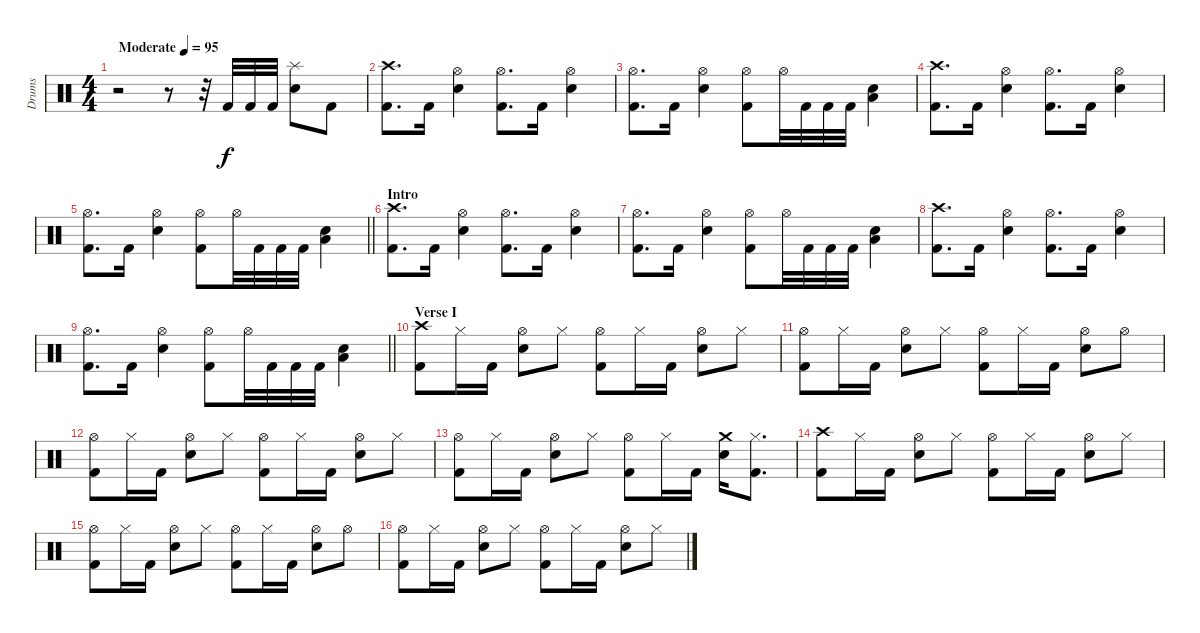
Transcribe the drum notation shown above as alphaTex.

\track ("Drums" "Drums") {instrument percussion}
\staff {score}
\articulation defaults
\ts (4 4)
\tempo (95 "Moderate")
\clef neutral
\ks c
r.2{dy f} r.8 r.32 "Kick (hit) 2".32 "Kick (hit) 2".32 "Kick (hit) 2".32 ("Splash (hit)" "Snare (hit) 2").8 "Kick (hit) 2".8 |
("Crash high (hit)" "Kick (hit) 2").8{d} "Kick (hit) 2".16 ("Hi-Hat (open)" "Snare (hit) 2").4 ("Hi-Hat (open)" "Kick (hit) 2").8{d} "Kick (hit) 2".16 ("Hi-Hat (open)" "Snare (hit) 2").4 |
("Hi-Hat (open)" "Kick (hit) 2").8{d} "Kick (hit) 2".16 ("Hi-Hat (open)" "Snare (hit) 2").4 ("Hi-Hat (open)" "Kick (hit) 2").8 "Hi-Hat (open)".32 "Kick (hit) 2".32 "Kick (hit) 2".32 "Kick (hit) 2".32 ("Snare (hit) 2" "Low Floor Tom (hit)").4 |
("Crash high (hit)" "Kick (hit) 2").8{d} "Kick (hit) 2".16 ("Hi-Hat (open)" "Snare (hit) 2").4 ("Hi-Hat (open)" "Kick (hit) 2").8{d} "Kick (hit) 2".16 ("Hi-Hat (open)" "Snare (hit) 2").4 |
\barLineRight lightlight
("Hi-Hat (open)" "Kick (hit) 2").8{d} "Kick (hit) 2".16 ("Hi-Hat (open)" "Snare (hit) 2").4 ("Hi-Hat (open)" "Kick (hit) 2").8 "Hi-Hat (open)".32 "Kick (hit) 2".32 "Kick (hit) 2".32 "Kick (hit) 2".32 ("Snare (hit) 2" "Low Floor Tom (hit)").4 |
\section ("" "Intro")
("Crash high (hit)" "Kick (hit) 2").8{d} "Kick (hit) 2".16 ("Hi-Hat (open)" "Snare (hit) 2").4 ("Hi-Hat (open)" "Kick (hit) 2").8{d} "Kick (hit) 2".16 ("Hi-Hat (open)" "Snare (hit) 2").4 |
("Hi-Hat (open)" "Kick (hit) 2").8{d} "Kick (hit) 2".16 ("Hi-Hat (open)" "Snare (hit) 2").4 ("Hi-Hat (open)" "Kick (hit) 2").8 "Hi-Hat (open)".32 "Kick (hit) 2".32 "Kick (hit) 2".32 "Kick (hit) 2".32 ("Snare (hit) 2" "Low Floor Tom (hit)").4 |
("Crash high (hit)" "Kick (hit) 2").8{d} "Kick (hit) 2".16 ("Hi-Hat (open)" "Snare (hit) 2").4 ("Hi-Hat (open)" "Kick (hit) 2").8{d} "Kick (hit) 2".16 ("Hi-Hat (open)" "Snare (hit) 2").4 |
\barLineRight lightlight
("Hi-Hat (open)" "Kick (hit) 2").8{d} "Kick (hit) 2".16 ("Hi-Hat (open)" "Snare (hit) 2").4 ("Hi-Hat (open)" "Kick (hit) 2").8 "Hi-Hat (open)".32 "Kick (hit) 2".32 "Kick (hit) 2".32 "Kick (hit) 2".32 ("Snare (hit) 2" "Low Floor Tom (hit)").4 |
\section ("" "Verse I")
("Crash high (hit)" "Kick (hit) 2").8 "Hi-Hat (closed)".16 "Kick (hit) 2".16 ("Hi-Hat (open)" "Snare (hit) 2").8 "Hi-Hat (closed)".8 ("Hi-Hat (open)" "Kick (hit) 2").8 "Hi-Hat (closed)".16 "Kick (hit) 2".16 ("Hi-Hat (open)" "Snare (hit) 2").8 "Hi-Hat (closed)".8 |
("Hi-Hat (open)" "Kick (hit) 2").8 "Hi-Hat (closed)".16 "Kick (hit) 2".16 ("Hi-Hat (open)" "Snare (hit) 2").8 "Hi-Hat (closed)".8 ("Hi-Hat (open)" "Kick (hit) 2").8 "Hi-Hat (closed)".16 "Kick (hit) 2".16 ("Hi-Hat (open)" "Snare (hit) 2").8 "Hi-Hat (open)".8 |
("Hi-Hat (open)" "Kick (hit) 2").8 "Hi-Hat (closed)".16 "Kick (hit) 2".16 ("Hi-Hat (open)" "Snare (hit) 2").8 "Hi-Hat (closed)".8 ("Hi-Hat (open)" "Kick (hit) 2").8 "Hi-Hat (closed)".16 "Kick (hit) 2".16 ("Hi-Hat (open)" "Snare (hit) 2").8 "Hi-Hat (closed)".8 |
("Hi-Hat (open)" "Kick (hit) 2").8 "Hi-Hat (closed)".16 "Kick (hit) 2".16 ("Hi-Hat (open)" "Snare (hit) 2").8 "Hi-Hat (closed)".8 ("Hi-Hat (open)" "Kick (hit) 2").8 "Hi-Hat (closed)".16 "Kick (hit) 2".16 ("Crash medium (hit)" "Snare (hit) 2").16 ("Hi-Hat (closed)" "Kick (hit) 2").8{d} |
("Crash high (hit)" "Kick (hit) 2").8 "Hi-Hat (closed)".16 "Kick (hit) 2".16 ("Hi-Hat (open)" "Snare (hit) 2").8 "Hi-Hat (closed)".8 ("Hi-Hat (open)" "Kick (hit) 2").8 "Hi-Hat (closed)".16 "Kick (hit) 2".16 ("Hi-Hat (open)" "Snare (hit) 2").8 "Hi-Hat (closed)".8 |
("Hi-Hat (open)" "Kick (hit) 2").8 "Hi-Hat (closed)".16 "Kick (hit) 2".16 ("Hi-Hat (open)" "Snare (hit) 2").8 "Hi-Hat (closed)".8 ("Hi-Hat (open)" "Kick (hit) 2").8 "Hi-Hat (closed)".16 "Kick (hit) 2".16 ("Hi-Hat (open)" "Snare (hit) 2").8 "Hi-Hat (open)".8 |
("Hi-Hat (open)" "Kick (hit) 2").8 "Hi-Hat (closed)".16 "Kick (hit) 2".16 ("Hi-Hat (open)" "Snare (hit) 2").8 "Hi-Hat (closed)".8 ("Hi-Hat (open)" "Kick (hit) 2").8 "Hi-Hat (closed)".16 "Kick (hit) 2".16 ("Hi-Hat (open)" "Snare (hit) 2").8 "Hi-Hat (closed)".8
